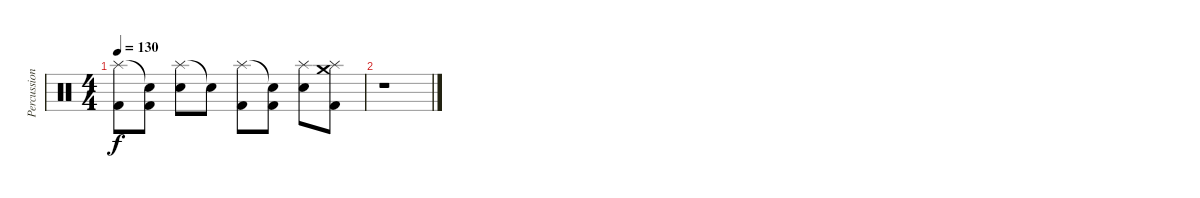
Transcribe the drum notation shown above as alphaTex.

\track ("Percussion" "Percussion") {instrument percussion}
\staff {score}
\articulation defaults
\ts (4 4)
\tempo 130
\clef neutral
\ks c
("Splash (hit)" "Kick (hit) 2").8{dy f} ("Snare (hit)"{t} "Kick (hit) 2").8 ("Splash (hit)" "Electric Snare (hit)").8 "Snare (hit)"{t}.8 ("Splash (hit)" "Kick (hit) 2").8 ("Snare (hit)"{t} "Kick (hit) 2").8 ("Splash (hit)" "Electric Snare (hit)").8 ("Crash medium (hit)" "Splash (hit)" "Kick (hit) 2").8 |
r.1
